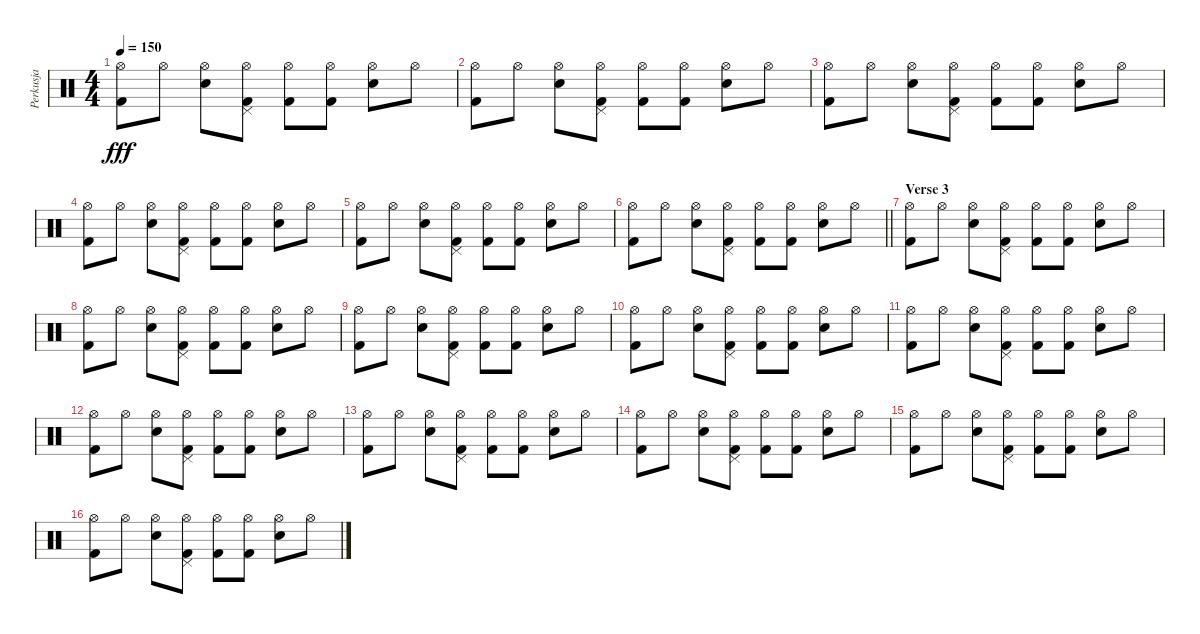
\track ("Perkusja" "Perkusja") {instrument percussion}
\staff {score}
\articulation defaults
\ts (4 4)
\tempo 150
\clef neutral
\ks c
("Hi-Hat (open)" "Kick (hit) 2").8{dy fff} "Hi-Hat (open)".8 ("Hi-Hat (open)" "Electric Snare (hit)").8 ("Hi-Hat (open)" "Kick (hit) 2" "Pedal Hi-Hat (hit)").8 ("Hi-Hat (open)" "Kick (hit) 2").8 ("Hi-Hat (open)" "Kick (hit) 2").8 ("Hi-Hat (open)" "Electric Snare (hit)").8 "Hi-Hat (open)".8 |
("Hi-Hat (open)" "Kick (hit) 2").8 "Hi-Hat (open)".8 ("Hi-Hat (open)" "Electric Snare (hit)").8 ("Hi-Hat (open)" "Kick (hit) 2" "Pedal Hi-Hat (hit)").8 ("Hi-Hat (open)" "Kick (hit) 2").8 ("Hi-Hat (open)" "Kick (hit) 2").8 ("Hi-Hat (open)" "Electric Snare (hit)").8 "Hi-Hat (open)".8 |
("Hi-Hat (open)" "Kick (hit) 2").8 "Hi-Hat (open)".8 ("Hi-Hat (open)" "Electric Snare (hit)").8 ("Hi-Hat (open)" "Kick (hit) 2" "Pedal Hi-Hat (hit)").8 ("Hi-Hat (open)" "Kick (hit) 2").8 ("Hi-Hat (open)" "Kick (hit) 2").8 ("Hi-Hat (open)" "Electric Snare (hit)").8 "Hi-Hat (open)".8 |
("Hi-Hat (open)" "Kick (hit) 2").8 "Hi-Hat (open)".8 ("Hi-Hat (open)" "Electric Snare (hit)").8 ("Hi-Hat (open)" "Kick (hit) 2" "Pedal Hi-Hat (hit)").8 ("Hi-Hat (open)" "Kick (hit) 2").8 ("Hi-Hat (open)" "Kick (hit) 2").8 ("Hi-Hat (open)" "Electric Snare (hit)").8 "Hi-Hat (open)".8 |
("Hi-Hat (open)" "Kick (hit) 2").8 "Hi-Hat (open)".8 ("Hi-Hat (open)" "Electric Snare (hit)").8 ("Hi-Hat (open)" "Kick (hit) 2" "Pedal Hi-Hat (hit)").8 ("Hi-Hat (open)" "Kick (hit) 2").8 ("Hi-Hat (open)" "Kick (hit) 2").8 ("Hi-Hat (open)" "Electric Snare (hit)").8 "Hi-Hat (open)".8 |
\barLineRight lightlight
("Hi-Hat (open)" "Kick (hit) 2").8 "Hi-Hat (open)".8 ("Hi-Hat (open)" "Electric Snare (hit)").8 ("Hi-Hat (open)" "Kick (hit) 2" "Pedal Hi-Hat (hit)").8 ("Hi-Hat (open)" "Kick (hit) 2").8 ("Hi-Hat (open)" "Kick (hit) 2").8 ("Hi-Hat (open)" "Electric Snare (hit)").8 "Hi-Hat (open)".8 |
\section ("" "Verse 3")
("Hi-Hat (open)" "Kick (hit) 2").8 "Hi-Hat (open)".8 ("Hi-Hat (open)" "Electric Snare (hit)").8 ("Hi-Hat (open)" "Kick (hit) 2" "Pedal Hi-Hat (hit)").8 ("Hi-Hat (open)" "Kick (hit) 2").8 ("Hi-Hat (open)" "Kick (hit) 2").8 ("Hi-Hat (open)" "Electric Snare (hit)").8 "Hi-Hat (open)".8 |
("Hi-Hat (open)" "Kick (hit) 2").8 "Hi-Hat (open)".8 ("Hi-Hat (open)" "Electric Snare (hit)").8 ("Hi-Hat (open)" "Kick (hit) 2" "Pedal Hi-Hat (hit)").8 ("Hi-Hat (open)" "Kick (hit) 2").8 ("Hi-Hat (open)" "Kick (hit) 2").8 ("Hi-Hat (open)" "Electric Snare (hit)").8 "Hi-Hat (open)".8 |
("Hi-Hat (open)" "Kick (hit) 2").8 "Hi-Hat (open)".8 ("Hi-Hat (open)" "Electric Snare (hit)").8 ("Hi-Hat (open)" "Kick (hit) 2" "Pedal Hi-Hat (hit)").8 ("Hi-Hat (open)" "Kick (hit) 2").8 ("Hi-Hat (open)" "Kick (hit) 2").8 ("Hi-Hat (open)" "Electric Snare (hit)").8 "Hi-Hat (open)".8 |
("Hi-Hat (open)" "Kick (hit) 2").8 "Hi-Hat (open)".8 ("Hi-Hat (open)" "Electric Snare (hit)").8 ("Hi-Hat (open)" "Kick (hit) 2" "Pedal Hi-Hat (hit)").8 ("Hi-Hat (open)" "Kick (hit) 2").8 ("Hi-Hat (open)" "Kick (hit) 2").8 ("Hi-Hat (open)" "Electric Snare (hit)").8 "Hi-Hat (open)".8 |
("Hi-Hat (open)" "Kick (hit) 2").8 "Hi-Hat (open)".8 ("Hi-Hat (open)" "Electric Snare (hit)").8 ("Hi-Hat (open)" "Kick (hit) 2" "Pedal Hi-Hat (hit)").8 ("Hi-Hat (open)" "Kick (hit) 2").8 ("Hi-Hat (open)" "Kick (hit) 2").8 ("Hi-Hat (open)" "Electric Snare (hit)").8 "Hi-Hat (open)".8 |
("Hi-Hat (open)" "Kick (hit) 2").8 "Hi-Hat (open)".8 ("Hi-Hat (open)" "Electric Snare (hit)").8 ("Hi-Hat (open)" "Kick (hit) 2" "Pedal Hi-Hat (hit)").8 ("Hi-Hat (open)" "Kick (hit) 2").8 ("Hi-Hat (open)" "Kick (hit) 2").8 ("Hi-Hat (open)" "Electric Snare (hit)").8 "Hi-Hat (open)".8 |
("Hi-Hat (open)" "Kick (hit) 2").8 "Hi-Hat (open)".8 ("Hi-Hat (open)" "Electric Snare (hit)").8 ("Hi-Hat (open)" "Kick (hit) 2" "Pedal Hi-Hat (hit)").8 ("Hi-Hat (open)" "Kick (hit) 2").8 ("Hi-Hat (open)" "Kick (hit) 2").8 ("Hi-Hat (open)" "Electric Snare (hit)").8 "Hi-Hat (open)".8 |
("Hi-Hat (open)" "Kick (hit) 2").8 "Hi-Hat (open)".8 ("Hi-Hat (open)" "Electric Snare (hit)").8 ("Hi-Hat (open)" "Kick (hit) 2" "Pedal Hi-Hat (hit)").8 ("Hi-Hat (open)" "Kick (hit) 2").8 ("Hi-Hat (open)" "Kick (hit) 2").8 ("Hi-Hat (open)" "Electric Snare (hit)").8 "Hi-Hat (open)".8 |
("Hi-Hat (open)" "Kick (hit) 2").8 "Hi-Hat (open)".8 ("Hi-Hat (open)" "Electric Snare (hit)").8 ("Hi-Hat (open)" "Kick (hit) 2" "Pedal Hi-Hat (hit)").8 ("Hi-Hat (open)" "Kick (hit) 2").8 ("Hi-Hat (open)" "Kick (hit) 2").8 ("Hi-Hat (open)" "Electric Snare (hit)").8 "Hi-Hat (open)".8 |
("Hi-Hat (open)" "Kick (hit) 2").8 "Hi-Hat (open)".8 ("Hi-Hat (open)" "Electric Snare (hit)").8 ("Hi-Hat (open)" "Kick (hit) 2" "Pedal Hi-Hat (hit)").8 ("Hi-Hat (open)" "Kick (hit) 2").8 ("Hi-Hat (open)" "Kick (hit) 2").8 ("Hi-Hat (open)" "Electric Snare (hit)").8 "Hi-Hat (open)".8
